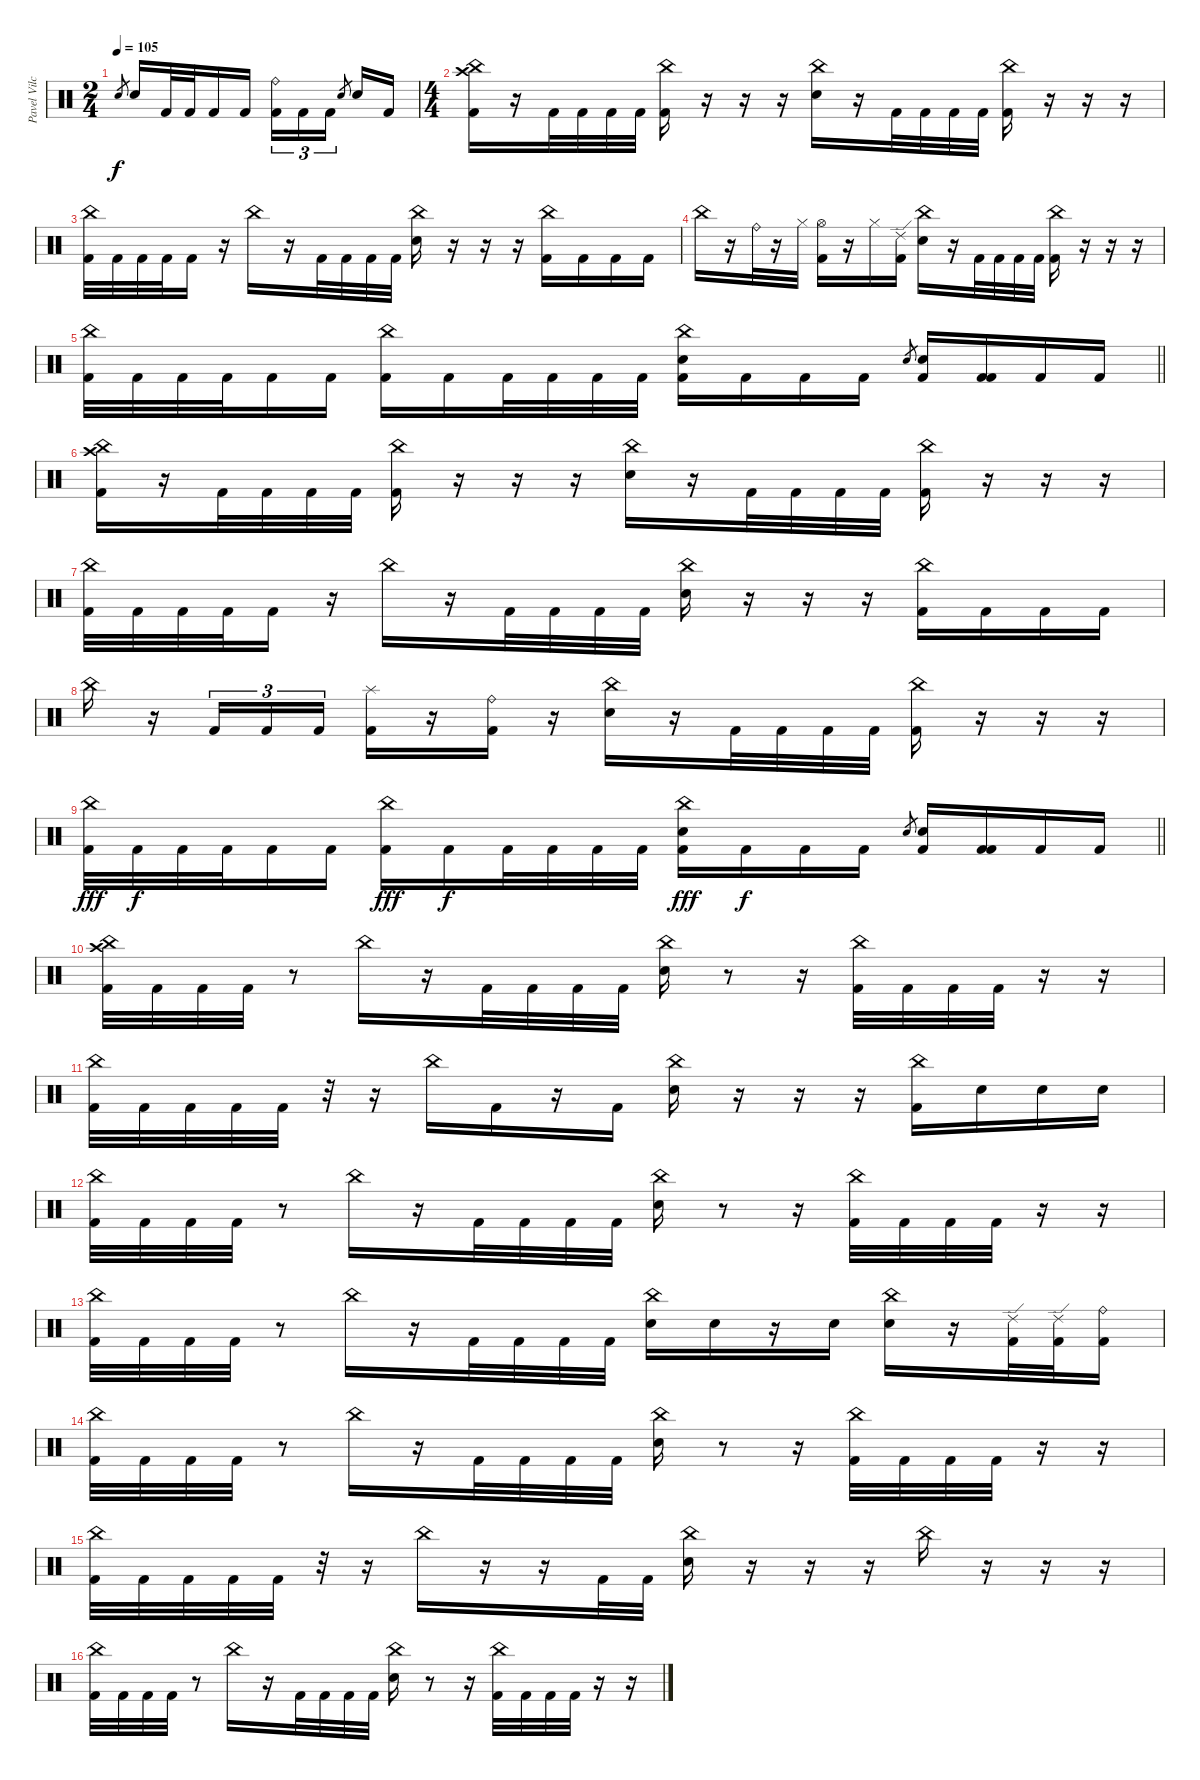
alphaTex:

\track ("Pavel Vilchytski" "Pavel Vilc") {instrument percussion}
\staff {score}
\articulation defaults
\ts (2 4)
\tempo 105
\clef neutral
\ks c "Electric Snare (hit)".8{gr dy f} "Electric Snare (hit)".16 "Kick (hit) 2".32 "Kick (hit) 2".32 "Kick (hit) 2".16 "Kick (hit) 2".16
("Ride (bell)" "Kick (hit) 2").16{tu (3 2)} "Kick (hit) 2".16{tu (3 2)} "Kick (hit) 2".16{tu (3 2)} "Electric Snare (hit)".8{gr beam splitsecondary} "Electric Snare (hit)".16 "Kick (hit) 2".16 |
\ts (4 4)
("China (hit)" "Crash high (hit)" "Kick (hit) 2").16 r.16 "Kick (hit) 2".32 "Kick (hit) 2".32 "Kick (hit) 2".32 "Kick (hit) 2".32 ("China (hit)" "Kick (hit) 2").16 r.16 r.16 r.16 ("China (hit)" "Electric Snare (hit)").16 r.16 "Kick (hit) 2".32 "Kick (hit) 2".32 "Kick (hit) 2".32 "Kick (hit) 2".32 ("China (hit)" "Kick (hit) 2").16 r.16 r.16 r.16 |
("China (hit)" "Kick (hit) 2").32 "Kick (hit) 2".32 "Kick (hit) 2".32 "Kick (hit) 2".32 "Kick (hit) 2".16 r.16 "China (hit)".16 r.16 "Kick (hit) 2".32 "Kick (hit) 2".32 "Kick (hit) 2".32 "Kick (hit) 2".32 ("China (hit)" "Electric Snare (hit)").16 r.16 r.16 r.16 ("China (hit)" "Kick (hit) 2").16 "Kick (hit) 2".16 "Kick (hit) 2".16 "Kick (hit) 2".16 |
"China (hit)".16 r.16 "Ride (bell)".32 r.16 "Hi-Hat (closed)".32 ("Hi-Hat (open)" "Kick (hit) 2").16 r.16 "Hi-Hat (closed)".16 ("Ride (edge) 2" "Kick (hit) 2").16 ("China (hit)" "Electric Snare (hit)").16 r.16 "Kick (hit) 2".32 "Kick (hit) 2".32 "Kick (hit) 2".32 "Kick (hit) 2".32 ("China (hit)" "Kick (hit) 2").16 r.16 r.16 r.16 |
\barLineRight lightlight
("China (hit)" "Kick (hit) 2").32 "Kick (hit) 2".32 "Kick (hit) 2".32 "Kick (hit) 2".32 "Kick (hit) 2".16 "Kick (hit) 2".16 ("China (hit)" "Kick (hit) 2").16 "Kick (hit) 2".16 "Kick (hit) 2".32 "Kick (hit) 2".32 "Kick (hit) 2".32 "Kick (hit) 2".32 ("China (hit)" "Electric Snare (hit)" "Kick (hit) 2").16 "Kick (hit) 2".16 "Kick (hit) 2".16 "Kick (hit) 2".16 "Electric Snare (hit)".8{gr} ("Electric Snare (hit)" "Kick (hit) 2").16 ("Kick (hit) 2" "Kick (hit) 2").16 "Kick (hit) 2".16 "Kick (hit) 2".16 |
("China (hit)" "Crash high (hit)" "Kick (hit) 2").16 r.16 "Kick (hit) 2".32 "Kick (hit) 2".32 "Kick (hit) 2".32 "Kick (hit) 2".32 ("China (hit)" "Kick (hit) 2").16 r.16 r.16 r.16 ("China (hit)" "Electric Snare (hit)").16 r.16 "Kick (hit) 2".32 "Kick (hit) 2".32 "Kick (hit) 2".32 "Kick (hit) 2".32 ("China (hit)" "Kick (hit) 2").16 r.16 r.16 r.16 |
("China (hit)" "Kick (hit) 2").32 "Kick (hit) 2".32 "Kick (hit) 2".32 "Kick (hit) 2".32 "Kick (hit) 2".16 r.16 "China (hit)".16 r.16 "Kick (hit) 2".32 "Kick (hit) 2".32 "Kick (hit) 2".32 "Kick (hit) 2".32 ("China (hit)" "Electric Snare (hit)").16 r.16 r.16 r.16 ("China (hit)" "Kick (hit) 2").16 "Kick (hit) 2".16 "Kick (hit) 2".16 "Kick (hit) 2".16 |
"China (hit)".16 r.16 "Kick (hit) 2".16{tu (3 2)} "Kick (hit) 2".16{tu (3 2)} "Kick (hit) 2".16{tu (3 2)} ("Splash (hit)" "Kick (hit) 2").16 r.16 ("Ride (bell)" "Kick (hit) 2").16 r.16 ("China (hit)" "Electric Snare (hit)").16 r.16 "Kick (hit) 2".32 "Kick (hit) 2".32 "Kick (hit) 2".32 "Kick (hit) 2".32 ("China (hit)" "Kick (hit) 2").16 r.16 r.16 r.16 |
\barLineRight lightlight
("China (hit)" "Kick (hit) 2").32{dy fff} "Kick (hit) 2".32{dy f} "Kick (hit) 2".32 "Kick (hit) 2".32 "Kick (hit) 2".16 "Kick (hit) 2".16 ("China (hit)" "Kick (hit) 2").16{dy fff} "Kick (hit) 2".16{dy f} "Kick (hit) 2".32 "Kick (hit) 2".32 "Kick (hit) 2".32 "Kick (hit) 2".32 ("China (hit)" "Electric Snare (hit)" "Kick (hit) 2").16{dy fff} "Kick (hit) 2".16{dy f} "Kick (hit) 2".16 "Kick (hit) 2".16 "Electric Snare (hit)".8{gr} ("Electric Snare (hit)" "Kick (hit) 2").16 ("Kick (hit) 2" "Kick (hit) 2").16 "Kick (hit) 2".16 "Kick (hit) 2".16 |
("China (hit)" "Crash high (hit)" "Kick (hit) 2").32 "Kick (hit) 2".32 "Kick (hit) 2".32 "Kick (hit) 2".32 r.8 "China (hit)".16 r.16 "Kick (hit) 2".32 "Kick (hit) 2".32 "Kick (hit) 2".32 "Kick (hit) 2".32 ("China (hit)" "Electric Snare (hit)").16 r.8 r.16 ("China (hit)" "Kick (hit) 2").32 "Kick (hit) 2".32 "Kick (hit) 2".32 "Kick (hit) 2".32 r.16 r.16 |
("China (hit)" "Kick (hit) 2").32 "Kick (hit) 2".32 "Kick (hit) 2".32 "Kick (hit) 2".32 "Kick (hit) 2".32 r.32 r.16 "China (hit)".16 "Kick (hit) 2".16 r.16 "Kick (hit) 2".16 ("China (hit)" "Electric Snare (hit)").16 r.16 r.16 r.16 ("China (hit)" "Kick (hit) 2").16 "Electric Snare (hit)".16 "Electric Snare (hit)".16 "Electric Snare (hit)".16 |
("China (hit)" "Kick (hit) 2").32 "Kick (hit) 2".32 "Kick (hit) 2".32 "Kick (hit) 2".32 r.8 "China (hit)".16 r.16 "Kick (hit) 2".32 "Kick (hit) 2".32 "Kick (hit) 2".32 "Kick (hit) 2".32 ("China (hit)" "Electric Snare (hit)").16 r.8 r.16 ("China (hit)" "Kick (hit) 2").32 "Kick (hit) 2".32 "Kick (hit) 2".32 "Kick (hit) 2".32 r.16 r.16 |
("China (hit)" "Kick (hit) 2").32 "Kick (hit) 2".32 "Kick (hit) 2".32 "Kick (hit) 2".32 r.8 "China (hit)".16 r.16 "Kick (hit) 2".32 "Kick (hit) 2".32 "Kick (hit) 2".32 "Kick (hit) 2".32 ("China (hit)" "Electric Snare (hit)").16 "Electric Snare (hit)".16 r.16 "Electric Snare (hit)".16 ("China (hit)" "Electric Snare (hit)").16 r.16 ("Ride (edge) 2" "Kick (hit) 2").32 ("Ride (edge) 2" "Kick (hit) 2").32 ("Ride (bell)" "Kick (hit) 2").16 |
("China (hit)" "Kick (hit) 2").32 "Kick (hit) 2".32 "Kick (hit) 2".32 "Kick (hit) 2".32 r.8 "China (hit)".16 r.16 "Kick (hit) 2".32 "Kick (hit) 2".32 "Kick (hit) 2".32 "Kick (hit) 2".32 ("China (hit)" "Electric Snare (hit)").16 r.8 r.16 ("China (hit)" "Kick (hit) 2").32 "Kick (hit) 2".32 "Kick (hit) 2".32 "Kick (hit) 2".32 r.16 r.16 |
("China (hit)" "Kick (hit) 2").32 "Kick (hit) 2".32 "Kick (hit) 2".32 "Kick (hit) 2".32 "Kick (hit) 2".32 r.32 r.16 "China (hit)".16 r.16 r.16 "Kick (hit) 2".32 "Kick (hit) 2".32 ("China (hit)" "Electric Snare (hit)").16 r.16 r.16 r.16 "China (hit)".16 r.16 r.16 r.16 |
("China (hit)" "Kick (hit) 2").32 "Kick (hit) 2".32 "Kick (hit) 2".32 "Kick (hit) 2".32 r.8 "China (hit)".16 r.16 "Kick (hit) 2".32 "Kick (hit) 2".32 "Kick (hit) 2".32 "Kick (hit) 2".32 ("China (hit)" "Electric Snare (hit)").16 r.8 r.16 ("China (hit)" "Kick (hit) 2").32 "Kick (hit) 2".32 "Kick (hit) 2".32 "Kick (hit) 2".32 r.16 r.16
